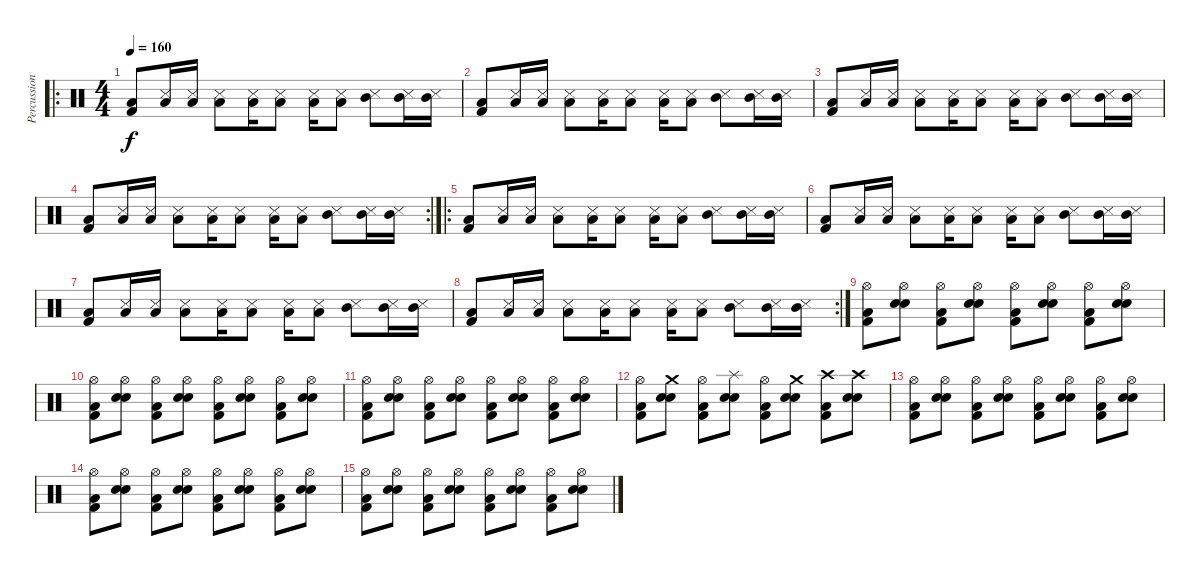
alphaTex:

\track ("Percussions" "Percussion") {instrument percussion}
\staff {score}
\articulation defaults
\ro
\ts (4 4)
\tempo 160
\clef neutral
\ks c
("Kick (hit) 2" "Low Floor Tom (hit)").8{dy f} ("Low Floor Tom (hit)" "Snare (side stick) 3").16 ("Low Floor Tom (hit)" "Snare (side stick) 3").16 ("Low Floor Tom (hit)" "Snare (side stick) 3").8 ("Low Floor Tom (hit)" "Snare (side stick) 3").16 ("Low Floor Tom (hit)" "Snare (side stick) 3").8 ("Low Floor Tom (hit)" "Snare (side stick) 3").16 ("Low Floor Tom (hit)" "Snare (side stick) 3").8 ("Mid Tom (hit)" "Snare (side stick) 3").8 ("Mid Tom (hit)" "Snare (side stick) 3").16 ("Mid Tom (hit)" "Snare (side stick) 3").16 |
("Kick (hit) 2" "Low Floor Tom (hit)").8 ("Low Floor Tom (hit)" "Snare (side stick) 3").16 ("Low Floor Tom (hit)" "Snare (side stick) 3").16 ("Low Floor Tom (hit)" "Snare (side stick) 3").8 ("Low Floor Tom (hit)" "Snare (side stick) 3").16 ("Low Floor Tom (hit)" "Snare (side stick) 3").8 ("Low Floor Tom (hit)" "Snare (side stick) 3").16 ("Low Floor Tom (hit)" "Snare (side stick) 3").8 ("Mid Tom (hit)" "Snare (side stick) 3").8 ("Mid Tom (hit)" "Snare (side stick) 3").16 ("Mid Tom (hit)" "Snare (side stick) 3").16 |
("Kick (hit) 2" "Low Floor Tom (hit)").8 ("Low Floor Tom (hit)" "Snare (side stick) 3").16 ("Low Floor Tom (hit)" "Snare (side stick) 3").16 ("Low Floor Tom (hit)" "Snare (side stick) 3").8 ("Low Floor Tom (hit)" "Snare (side stick) 3").16 ("Low Floor Tom (hit)" "Snare (side stick) 3").8 ("Low Floor Tom (hit)" "Snare (side stick) 3").16 ("Low Floor Tom (hit)" "Snare (side stick) 3").8 ("Mid Tom (hit)" "Snare (side stick) 3").8 ("Mid Tom (hit)" "Snare (side stick) 3").16 ("Mid Tom (hit)" "Snare (side stick) 3").16 |
\rc 2
("Kick (hit) 2" "Low Floor Tom (hit)").8 ("Low Floor Tom (hit)" "Snare (side stick) 3").16 ("Low Floor Tom (hit)" "Snare (side stick) 3").16 ("Low Floor Tom (hit)" "Snare (side stick) 3").8 ("Low Floor Tom (hit)" "Snare (side stick) 3").16 ("Low Floor Tom (hit)" "Snare (side stick) 3").8 ("Low Floor Tom (hit)" "Snare (side stick) 3").16 ("Low Floor Tom (hit)" "Snare (side stick) 3").8 ("Mid Tom (hit)" "Snare (side stick) 3").8 ("Mid Tom (hit)" "Snare (side stick) 3").16 ("Mid Tom (hit)" "Snare (side stick) 3").16 |
\ro
("Kick (hit) 2" "Low Floor Tom (hit)").8 ("Low Floor Tom (hit)" "Snare (side stick) 3").16 ("Low Floor Tom (hit)" "Snare (side stick) 3").16 ("Low Floor Tom (hit)" "Snare (side stick) 3").8 ("Low Floor Tom (hit)" "Snare (side stick) 3").16 ("Low Floor Tom (hit)" "Snare (side stick) 3").8 ("Low Floor Tom (hit)" "Snare (side stick) 3").16 ("Low Floor Tom (hit)" "Snare (side stick) 3").8 ("Mid Tom (hit)" "Snare (side stick) 3").8 ("Mid Tom (hit)" "Snare (side stick) 3").16 ("Mid Tom (hit)" "Snare (side stick) 3").16 |
("Kick (hit) 2" "Low Floor Tom (hit)").8 ("Low Floor Tom (hit)" "Snare (side stick) 3").16 ("Low Floor Tom (hit)" "Snare (side stick) 3").16 ("Low Floor Tom (hit)" "Snare (side stick) 3").8 ("Low Floor Tom (hit)" "Snare (side stick) 3").16 ("Low Floor Tom (hit)" "Snare (side stick) 3").8 ("Low Floor Tom (hit)" "Snare (side stick) 3").16 ("Low Floor Tom (hit)" "Snare (side stick) 3").8 ("Mid Tom (hit)" "Snare (side stick) 3").8 ("Mid Tom (hit)" "Snare (side stick) 3").16 ("Mid Tom (hit)" "Snare (side stick) 3").16 |
("Kick (hit) 2" "Low Floor Tom (hit)").8 ("Low Floor Tom (hit)" "Snare (side stick) 3").16 ("Low Floor Tom (hit)" "Snare (side stick) 3").16 ("Low Floor Tom (hit)" "Snare (side stick) 3").8 ("Low Floor Tom (hit)" "Snare (side stick) 3").16 ("Low Floor Tom (hit)" "Snare (side stick) 3").8 ("Low Floor Tom (hit)" "Snare (side stick) 3").16 ("Low Floor Tom (hit)" "Snare (side stick) 3").8 ("Mid Tom (hit)" "Snare (side stick) 3").8 ("Mid Tom (hit)" "Snare (side stick) 3").16 ("Mid Tom (hit)" "Snare (side stick) 3").16 |
\rc 2
("Kick (hit) 2" "Low Floor Tom (hit)").8 ("Low Floor Tom (hit)" "Snare (side stick) 3").16 ("Low Floor Tom (hit)" "Snare (side stick) 3").16 ("Low Floor Tom (hit)" "Snare (side stick) 3").8 ("Low Floor Tom (hit)" "Snare (side stick) 3").16 ("Low Floor Tom (hit)" "Snare (side stick) 3").8 ("Low Floor Tom (hit)" "Snare (side stick) 3").16 ("Low Floor Tom (hit)" "Snare (side stick) 3").8 ("Mid Tom (hit)" "Snare (side stick) 3").8 ("Mid Tom (hit)" "Snare (side stick) 3").16 ("Mid Tom (hit)" "Snare (side stick) 3").16 |
("Hi-Hat (open)" "Kick (hit) 2" "Low Floor Tom (hit)").8 ("Hi-Hat (open)" "Snare (hit) 2" "Electric Snare (hit)").8 ("Hi-Hat (open)" "Kick (hit) 2" "Low Floor Tom (hit)").8 ("Hi-Hat (open)" "Snare (hit) 2" "Electric Snare (hit)").8 ("Hi-Hat (open)" "Kick (hit) 2" "Low Floor Tom (hit)").8 ("Hi-Hat (open)" "Snare (hit) 2" "Electric Snare (hit)").8 ("Hi-Hat (open)" "Kick (hit) 2" "Low Floor Tom (hit)").8 ("Hi-Hat (open)" "Snare (hit) 2" "Electric Snare (hit)").8 |
("Hi-Hat (open)" "Kick (hit) 2" "Low Floor Tom (hit)").8 ("Hi-Hat (open)" "Snare (hit) 2" "Electric Snare (hit)").8 ("Hi-Hat (open)" "Kick (hit) 2" "Low Floor Tom (hit)").8 ("Hi-Hat (open)" "Snare (hit) 2" "Electric Snare (hit)").8 ("Hi-Hat (open)" "Kick (hit) 2" "Low Floor Tom (hit)").8 ("Hi-Hat (open)" "Snare (hit) 2" "Electric Snare (hit)").8 ("Hi-Hat (open)" "Kick (hit) 2" "Low Floor Tom (hit)").8 ("Hi-Hat (open)" "Snare (hit) 2" "Electric Snare (hit)").8 |
("Hi-Hat (open)" "Kick (hit) 2" "Low Floor Tom (hit)").8 ("Hi-Hat (open)" "Snare (hit) 2" "Electric Snare (hit)").8 ("Hi-Hat (open)" "Kick (hit) 2" "Low Floor Tom (hit)").8 ("Hi-Hat (open)" "Snare (hit) 2" "Electric Snare (hit)").8 ("Hi-Hat (open)" "Kick (hit) 2" "Low Floor Tom (hit)").8 ("Hi-Hat (open)" "Snare (hit) 2" "Electric Snare (hit)").8 ("Hi-Hat (open)" "Kick (hit) 2" "Low Floor Tom (hit)").8 ("Hi-Hat (open)" "Snare (hit) 2" "Electric Snare (hit)").8 |
("Hi-Hat (open)" "Kick (hit) 2" "Low Floor Tom (hit)").8 ("Crash medium (hit)" "Snare (hit) 2" "Electric Snare (hit)").8 ("Hi-Hat (open)" "Kick (hit) 2" "Low Floor Tom (hit)").8 ("Splash (hit)" "Snare (hit) 2" "Electric Snare (hit)").8 ("Hi-Hat (open)" "Kick (hit) 2" "Low Floor Tom (hit)").8 ("Crash medium (hit)" "Snare (hit) 2" "Electric Snare (hit)").8 ("Crash high (hit)" "Kick (hit) 2" "Low Floor Tom (hit)").8 ("Crash high (hit)" "Snare (hit) 2" "Electric Snare (hit)").8 |
("Hi-Hat (open)" "Kick (hit) 2" "Low Floor Tom (hit)").8 ("Hi-Hat (open)" "Snare (hit) 2" "Electric Snare (hit)").8 ("Hi-Hat (open)" "Kick (hit) 2" "Low Floor Tom (hit)").8 ("Hi-Hat (open)" "Snare (hit) 2" "Electric Snare (hit)").8 ("Hi-Hat (open)" "Kick (hit) 2" "Low Floor Tom (hit)").8 ("Hi-Hat (open)" "Snare (hit) 2" "Electric Snare (hit)").8 ("Hi-Hat (open)" "Kick (hit) 2" "Low Floor Tom (hit)").8 ("Hi-Hat (open)" "Snare (hit) 2" "Electric Snare (hit)").8 |
("Hi-Hat (open)" "Kick (hit) 2" "Low Floor Tom (hit)").8 ("Hi-Hat (open)" "Snare (hit) 2" "Electric Snare (hit)").8 ("Hi-Hat (open)" "Kick (hit) 2" "Low Floor Tom (hit)").8 ("Hi-Hat (open)" "Snare (hit) 2" "Electric Snare (hit)").8 ("Hi-Hat (open)" "Kick (hit) 2" "Low Floor Tom (hit)").8 ("Hi-Hat (open)" "Snare (hit) 2" "Electric Snare (hit)").8 ("Hi-Hat (open)" "Kick (hit) 2" "Low Floor Tom (hit)").8 ("Hi-Hat (open)" "Snare (hit) 2" "Electric Snare (hit)").8 |
("Hi-Hat (open)" "Kick (hit) 2" "Low Floor Tom (hit)").8 ("Hi-Hat (open)" "Snare (hit) 2" "Electric Snare (hit)").8 ("Hi-Hat (open)" "Kick (hit) 2" "Low Floor Tom (hit)").8 ("Hi-Hat (open)" "Snare (hit) 2" "Electric Snare (hit)").8 ("Hi-Hat (open)" "Kick (hit) 2" "Low Floor Tom (hit)").8 ("Hi-Hat (open)" "Snare (hit) 2" "Electric Snare (hit)").8 ("Hi-Hat (open)" "Kick (hit) 2" "Low Floor Tom (hit)").8 ("Hi-Hat (open)" "Snare (hit) 2" "Electric Snare (hit)").8
